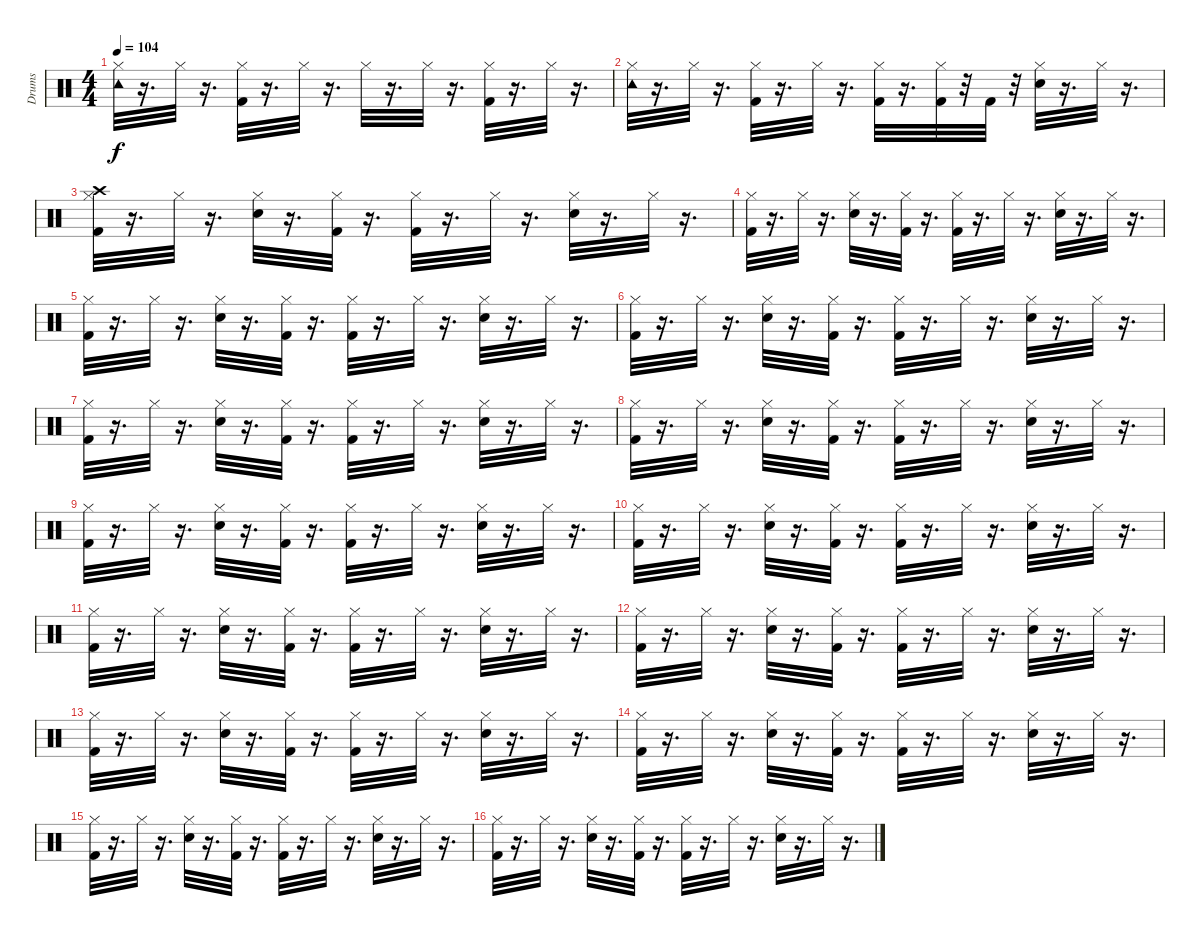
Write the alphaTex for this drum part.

\track ("Drums" "Drums") {instrument percussion}
\staff {score}
\articulation defaults
\ts (4 4)
\tempo 104
\clef neutral
\ks c
("Hi-Hat (closed)" "Tambourine (hit)").32{dy f} r.16{d} "Hi-Hat (closed)".32 r.16{d} ("Hi-Hat (closed)" "Kick (hit) 2").32 r.16{d} "Hi-Hat (closed)".32 r.16{d} "Hi-Hat (closed)".32 r.16{d} "Hi-Hat (closed)".32 r.16{d} ("Kick (hit) 2" "Hi-Hat (closed)").32 r.16{d} "Hi-Hat (closed)".32 r.16{d} |
("Hi-Hat (closed)" "Tambourine (hit)").32 r.16{d} "Hi-Hat (closed)".32 r.16{d} ("Hi-Hat (closed)" "Kick (hit) 2").32 r.16{d} "Hi-Hat (closed)".32 r.16{d} ("Hi-Hat (closed)" "Kick (hit) 2").32 r.16{d} ("Hi-Hat (closed)" "Kick (hit) 2").32 r.32 "Kick (hit) 2".32 r.32 ("Snare (hit) 2" "Hi-Hat (closed)").32 r.16{d} "Hi-Hat (closed)".32 r.16{d} |
("Crash high (hit)" "Kick (hit) 2" "Hi-Hat (closed)").32 r.16{d} "Hi-Hat (closed)".32 r.16{d} ("Hi-Hat (closed)" "Snare (hit) 2").32 r.16{d} ("Hi-Hat (closed)" "Kick (hit) 2").32 r.16{d} ("Hi-Hat (closed)" "Kick (hit) 2").32 r.16{d} "Hi-Hat (closed)".32 r.16{d} ("Snare (hit) 2" "Hi-Hat (closed)").32 r.16{d} "Hi-Hat (closed)".32 r.16{d} |
("Kick (hit) 2" "Hi-Hat (closed)").32 r.16{d} "Hi-Hat (closed)".32 r.16{d} ("Snare (hit) 2" "Hi-Hat (closed)").32 r.16{d} ("Hi-Hat (closed)" "Kick (hit) 2").32 r.16{d} ("Kick (hit) 2" "Hi-Hat (closed)").32 r.16{d} "Hi-Hat (closed)".32 r.16{d} ("Snare (hit) 2" "Hi-Hat (closed)").32 r.16{d} "Hi-Hat (closed)".32 r.16{d} |
("Kick (hit) 2" "Hi-Hat (closed)").32 r.16{d} "Hi-Hat (closed)".32 r.16{d} ("Snare (hit) 2" "Hi-Hat (closed)").32 r.16{d} ("Kick (hit) 2" "Hi-Hat (closed)").32 r.16{d} ("Hi-Hat (closed)" "Kick (hit) 2").32 r.16{d} "Hi-Hat (closed)".32 r.16{d} ("Snare (hit) 2" "Hi-Hat (closed)").32 r.16{d} "Hi-Hat (closed)".32 r.16{d} |
("Kick (hit) 2" "Hi-Hat (closed)").32 r.16{d} "Hi-Hat (closed)".32 r.16{d} ("Snare (hit) 2" "Hi-Hat (closed)").32 r.16{d} ("Kick (hit) 2" "Hi-Hat (closed)").32 r.16{d} ("Kick (hit) 2" "Hi-Hat (closed)").32 r.16{d} "Hi-Hat (closed)".32 r.16{d} ("Snare (hit) 2" "Hi-Hat (closed)").32 r.16{d} "Hi-Hat (closed)".32 r.16{d} |
("Hi-Hat (closed)" "Kick (hit) 2").32 r.16{d} "Hi-Hat (closed)".32 r.16{d} ("Hi-Hat (closed)" "Snare (hit) 2").32 r.16{d} ("Kick (hit) 2" "Hi-Hat (closed)").32 r.16{d} ("Hi-Hat (closed)" "Kick (hit) 2").32 r.16{d} "Hi-Hat (closed)".32 r.16{d} ("Hi-Hat (closed)" "Snare (hit) 2").32 r.16{d} "Hi-Hat (closed)".32 r.16{d} |
("Kick (hit) 2" "Hi-Hat (closed)").32 r.16{d} "Hi-Hat (closed)".32 r.16{d} ("Hi-Hat (closed)" "Snare (hit) 2").32 r.16{d} ("Hi-Hat (closed)" "Kick (hit) 2").32 r.16{d} ("Hi-Hat (closed)" "Kick (hit) 2").32 r.16{d} "Hi-Hat (closed)".32 r.16{d} ("Hi-Hat (closed)" "Snare (hit) 2").32 r.16{d} "Hi-Hat (closed)".32 r.16{d} |
("Hi-Hat (closed)" "Kick (hit) 2").32 r.16{d} "Hi-Hat (closed)".32 r.16{d} ("Hi-Hat (closed)" "Snare (hit) 2").32 r.16{d} ("Kick (hit) 2" "Hi-Hat (closed)").32 r.16{d} ("Hi-Hat (closed)" "Kick (hit) 2").32 r.16{d} "Hi-Hat (closed)".32 r.16{d} ("Hi-Hat (closed)" "Snare (hit) 2").32 r.16{d} "Hi-Hat (closed)".32 r.16{d} |
("Hi-Hat (closed)" "Kick (hit) 2").32 r.16{d} "Hi-Hat (closed)".32 r.16{d} ("Hi-Hat (closed)" "Snare (hit) 2").32 r.16{d} ("Kick (hit) 2" "Hi-Hat (closed)").32 r.16{d} ("Hi-Hat (closed)" "Kick (hit) 2").32 r.16{d} "Hi-Hat (closed)".32 r.16{d} ("Hi-Hat (closed)" "Snare (hit) 2").32 r.16{d} "Hi-Hat (closed)".32 r.16{d} |
("Hi-Hat (closed)" "Kick (hit) 2").32 r.16{d} "Hi-Hat (closed)".32 r.16{d} ("Hi-Hat (closed)" "Snare (hit) 2").32 r.16{d} ("Kick (hit) 2" "Hi-Hat (closed)").32 r.16{d} ("Hi-Hat (closed)" "Kick (hit) 2").32 r.16{d} "Hi-Hat (closed)".32 r.16{d} ("Hi-Hat (closed)" "Snare (hit) 2").32 r.16{d} "Hi-Hat (closed)".32 r.16{d} |
("Hi-Hat (closed)" "Kick (hit) 2").32 r.16{d} "Hi-Hat (closed)".32 r.16{d} ("Hi-Hat (closed)" "Snare (hit) 2").32 r.16{d} ("Kick (hit) 2" "Hi-Hat (closed)").32 r.16{d} ("Hi-Hat (closed)" "Kick (hit) 2").32 r.16{d} "Hi-Hat (closed)".32 r.16{d} ("Hi-Hat (closed)" "Snare (hit) 2").32 r.16{d} "Hi-Hat (closed)".32 r.16{d} |
("Hi-Hat (closed)" "Kick (hit) 2").32 r.16{d} "Hi-Hat (closed)".32 r.16{d} ("Hi-Hat (closed)" "Snare (hit) 2").32 r.16{d} ("Kick (hit) 2" "Hi-Hat (closed)").32 r.16{d} ("Hi-Hat (closed)" "Kick (hit) 2").32 r.16{d} "Hi-Hat (closed)".32 r.16{d} ("Hi-Hat (closed)" "Snare (hit) 2").32 r.16{d} "Hi-Hat (closed)".32 r.16{d} |
("Hi-Hat (closed)" "Kick (hit) 2").32 r.16{d} "Hi-Hat (closed)".32 r.16{d} ("Hi-Hat (closed)" "Snare (hit) 2").32 r.16{d} ("Kick (hit) 2" "Hi-Hat (closed)").32 r.16{d} ("Hi-Hat (closed)" "Kick (hit) 2").32 r.16{d} "Hi-Hat (closed)".32 r.16{d} ("Hi-Hat (closed)" "Snare (hit) 2").32 r.16{d} "Hi-Hat (closed)".32 r.16{d} |
("Hi-Hat (closed)" "Kick (hit) 2").32 r.16{d} "Hi-Hat (closed)".32 r.16{d} ("Hi-Hat (closed)" "Snare (hit) 2").32 r.16{d} ("Kick (hit) 2" "Hi-Hat (closed)").32 r.16{d} ("Hi-Hat (closed)" "Kick (hit) 2").32 r.16{d} "Hi-Hat (closed)".32 r.16{d} ("Hi-Hat (closed)" "Snare (hit) 2").32 r.16{d} "Hi-Hat (closed)".32 r.16{d} |
("Hi-Hat (closed)" "Kick (hit) 2").32 r.16{d} "Hi-Hat (closed)".32 r.16{d} ("Hi-Hat (closed)" "Snare (hit) 2").32 r.16{d} ("Kick (hit) 2" "Hi-Hat (closed)").32 r.16{d} ("Hi-Hat (closed)" "Kick (hit) 2").32 r.16{d} "Hi-Hat (closed)".32 r.16{d} ("Hi-Hat (closed)" "Snare (hit) 2").32 r.16{d} "Hi-Hat (closed)".32 r.16{d}
